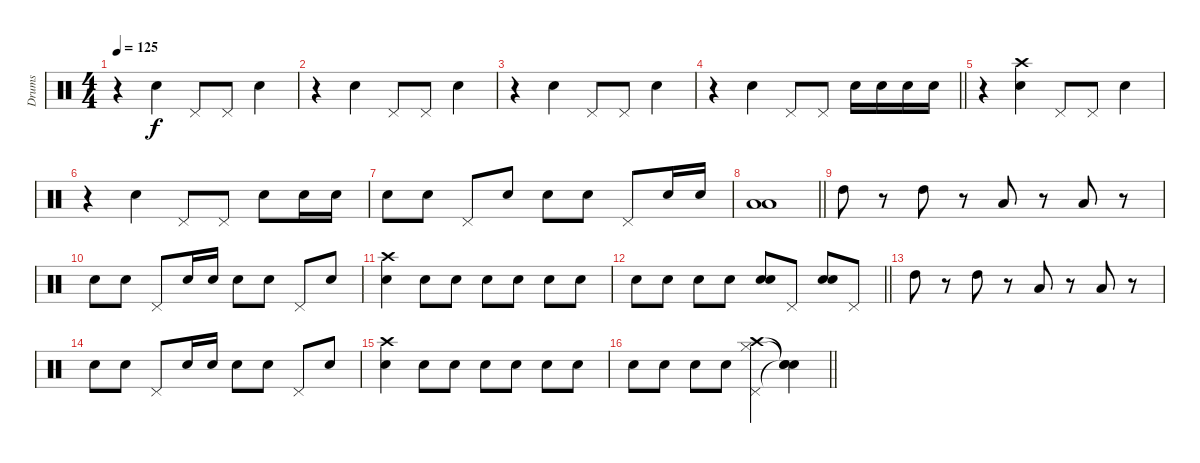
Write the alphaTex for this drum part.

\track ("Drums" "Drums") {instrument percussion}
\staff {score}
\articulation defaults
\ts (4 4)
\tempo 125
\clef neutral
\ks c
r.4{dy f} "Electric Snare (hit)".4 "Pedal Hi-Hat (hit)".8 "Pedal Hi-Hat (hit)".8 "Electric Snare (hit)".4 |
r.4 "Electric Snare (hit)".4 "Pedal Hi-Hat (hit)".8 "Pedal Hi-Hat (hit)".8 "Electric Snare (hit)".4 |
r.4 "Electric Snare (hit)".4 "Pedal Hi-Hat (hit)".8 "Pedal Hi-Hat (hit)".8 "Electric Snare (hit)".4 |
\barLineRight lightlight
r.4 "Electric Snare (hit)".4 "Pedal Hi-Hat (hit)".8 "Pedal Hi-Hat (hit)".8 "Electric Snare (hit)".16 "Electric Snare (hit)".16 "Electric Snare (hit)".16 "Electric Snare (hit)".16 |
r.4 ("Crash high (hit)" "Electric Snare (hit)").4 "Pedal Hi-Hat (hit)".8 "Pedal Hi-Hat (hit)".8 "Electric Snare (hit)".4 |
r.4 "Electric Snare (hit)".4 "Pedal Hi-Hat (hit)".8 "Pedal Hi-Hat (hit)".8 "Electric Snare (hit)".8 "Electric Snare (hit)".16 "Electric Snare (hit)".16 |
"Electric Snare (hit)".8 "Electric Snare (hit)".8 "Pedal Hi-Hat (hit)".8 "Electric Snare (hit)".8 "Electric Snare (hit)".8 "Electric Snare (hit)".8 "Pedal Hi-Hat (hit)".8 "Electric Snare (hit)".16 "Electric Snare (hit)".16 |
\barLineRight lightlight
("Low Floor Tom (hit)" "Low Floor Tom (hit)").1 |
"High Tom (hit)".8 r.8 "High Tom (hit)".8 r.8 "Low Tom (hit)".8 r.8 "Low Tom (hit)".8 r.8 |
"Electric Snare (hit)".8 "Electric Snare (hit)".8 "Pedal Hi-Hat (hit)".8 "Electric Snare (hit)".16 "Electric Snare (hit)".16 "Electric Snare (hit)".8 "Electric Snare (hit)".8 "Pedal Hi-Hat (hit)".8 "Electric Snare (hit)".8 |
("Crash high (hit)" "Electric Snare (hit)").4 "Electric Snare (hit)".8 "Electric Snare (hit)".8 "Electric Snare (hit)".8 "Electric Snare (hit)".8 "Electric Snare (hit)".8 "Electric Snare (hit)".8 |
\barLineRight lightlight "Electric Snare (hit)".8 "Electric Snare (hit)".8 "Electric Snare (hit)".8 "Electric Snare (hit)".8
("Electric Snare (hit)" "Electric Snare (hit)").8 "Pedal Hi-Hat (hit)".8 ("Electric Snare (hit)" "Electric Snare (hit)").8 "Pedal Hi-Hat (hit)".8 |
"High Tom (hit)".8 r.8 "High Tom (hit)".8 r.8 "Low Tom (hit)".8 r.8 "Low Tom (hit)".8 r.8 |
"Electric Snare (hit)".8 "Electric Snare (hit)".8 "Pedal Hi-Hat (hit)".8 "Electric Snare (hit)".16 "Electric Snare (hit)".16 "Electric Snare (hit)".8 "Electric Snare (hit)".8 "Pedal Hi-Hat (hit)".8 "Electric Snare (hit)".8 |
("Crash high (hit)" "Electric Snare (hit)").4 "Electric Snare (hit)".8 "Electric Snare (hit)".8 "Electric Snare (hit)".8 "Electric Snare (hit)".8 "Electric Snare (hit)".8 "Electric Snare (hit)".8 |
\barLineRight lightlight "Electric Snare (hit)".8 "Electric Snare (hit)".8 "Electric Snare (hit)".8 "Electric Snare (hit)".8
("Pedal Hi-Hat (hit)" "Crash high (hit)" "Hi-Hat (closed)").4 ("Snare (hit)"{t} "Snare (hit)"{t} "Snare (hit)"{t}).4
